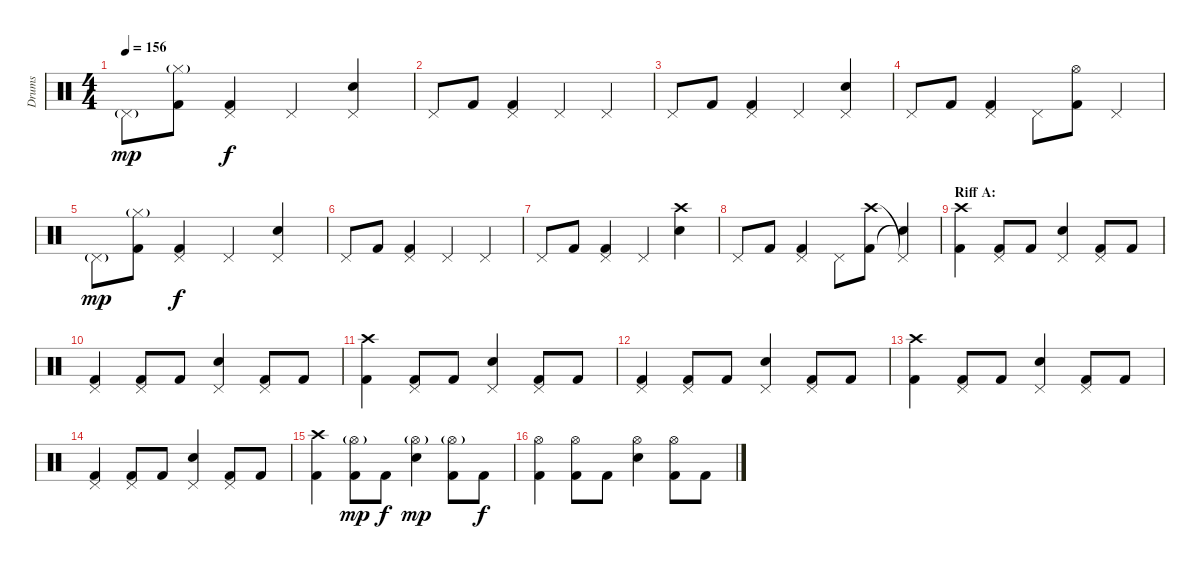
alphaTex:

\track ("Drums" "Drums") {instrument percussion}
\staff {score}
\articulation defaults
\ts (4 4)
\tempo 156
\clef neutral
\ks c "Pedal Hi-Hat (hit)"{g}.8{dy mp}
("Hi-Hat (closed)"{g} "Kick (hit) 2").8 ("Pedal Hi-Hat (hit)" "Kick (hit) 2").4{dy f} "Pedal Hi-Hat (hit)".4 ("Pedal Hi-Hat (hit)" "Electric Snare (hit)").4 |
"Pedal Hi-Hat (hit)".8 "Kick (hit) 2".8 ("Pedal Hi-Hat (hit)" "Kick (hit) 2").4 "Pedal Hi-Hat (hit)".4 "Pedal Hi-Hat (hit)".4 |
"Pedal Hi-Hat (hit)".8 "Kick (hit) 2".8 ("Pedal Hi-Hat (hit)" "Kick (hit) 2").4 "Pedal Hi-Hat (hit)".4 ("Pedal Hi-Hat (hit)" "Electric Snare (hit)").4 |
"Pedal Hi-Hat (hit)".8 "Kick (hit) 2".8 ("Pedal Hi-Hat (hit)" "Kick (hit) 2").4 "Pedal Hi-Hat (hit)".8 ("Hi-Hat (open)" "Kick (hit) 2").8 "Pedal Hi-Hat (hit)".4 |
"Pedal Hi-Hat (hit)"{g}.8{dy mp} ("Hi-Hat (closed)"{g} "Kick (hit) 2").8 ("Pedal Hi-Hat (hit)" "Kick (hit) 2").4{dy f} "Pedal Hi-Hat (hit)".4 ("Pedal Hi-Hat (hit)" "Electric Snare (hit)").4 |
"Pedal Hi-Hat (hit)".8 "Kick (hit) 2".8 ("Pedal Hi-Hat (hit)" "Kick (hit) 2").4 "Pedal Hi-Hat (hit)".4 "Pedal Hi-Hat (hit)".4 |
"Pedal Hi-Hat (hit)".8 "Kick (hit) 2".8 ("Pedal Hi-Hat (hit)" "Kick (hit) 2").4 "Pedal Hi-Hat (hit)".4 ("Crash high (hit)" "Electric Snare (hit)").4 |
"Pedal Hi-Hat (hit)".8 "Kick (hit) 2".8 ("Pedal Hi-Hat (hit)" "Kick (hit) 2").4 "Pedal Hi-Hat (hit)".8 ("Crash high (hit)" "Kick (hit) 2").8 ("Pedal Hi-Hat (hit)"{t} "Snare (hit)"{t}).4 |
\section ("" "Riff A:")
("Crash high (hit)" "Kick (hit) 2").4 ("Pedal Hi-Hat (hit)" "Kick (hit) 2").8 "Kick (hit) 2".8 ("Pedal Hi-Hat (hit)" "Electric Snare (hit)").4 ("Pedal Hi-Hat (hit)" "Kick (hit) 2").8 "Kick (hit) 2".8 |
("Pedal Hi-Hat (hit)" "Kick (hit) 2").4 ("Pedal Hi-Hat (hit)" "Kick (hit) 2").8 "Kick (hit) 2".8 ("Pedal Hi-Hat (hit)" "Electric Snare (hit)").4 ("Pedal Hi-Hat (hit)" "Kick (hit) 2").8 "Kick (hit) 2".8 |
("Crash high (hit)" "Kick (hit) 2").4 ("Pedal Hi-Hat (hit)" "Kick (hit) 2").8 "Kick (hit) 2".8 ("Pedal Hi-Hat (hit)" "Electric Snare (hit)").4 ("Pedal Hi-Hat (hit)" "Kick (hit) 2").8 "Kick (hit) 2".8 |
("Pedal Hi-Hat (hit)" "Kick (hit) 2").4 ("Pedal Hi-Hat (hit)" "Kick (hit) 2").8 "Kick (hit) 2".8 ("Pedal Hi-Hat (hit)" "Electric Snare (hit)").4 ("Pedal Hi-Hat (hit)" "Kick (hit) 2").8 "Kick (hit) 2".8 |
("Crash high (hit)" "Kick (hit) 2").4 ("Pedal Hi-Hat (hit)" "Kick (hit) 2").8 "Kick (hit) 2".8 ("Pedal Hi-Hat (hit)" "Electric Snare (hit)").4 ("Pedal Hi-Hat (hit)" "Kick (hit) 2").8 "Kick (hit) 2".8 |
("Pedal Hi-Hat (hit)" "Kick (hit) 2").4 ("Pedal Hi-Hat (hit)" "Kick (hit) 2").8 "Kick (hit) 2".8 ("Pedal Hi-Hat (hit)" "Electric Snare (hit)").4 ("Pedal Hi-Hat (hit)" "Kick (hit) 2").8 "Kick (hit) 2".8 |
("Crash high (hit)" "Kick (hit) 2").4 ("Hi-Hat (open)"{g} "Kick (hit) 2").8{dy mp} "Kick (hit) 2".8{dy f} ("Hi-Hat (open)"{g} "Electric Snare (hit)").4{dy mp} ("Hi-Hat (open)"{g} "Kick (hit) 2").8 "Kick (hit) 2".8{dy f} |
("Hi-Hat (open)" "Kick (hit) 2").4 ("Hi-Hat (open)" "Kick (hit) 2").8 "Kick (hit) 2".8 ("Hi-Hat (open)" "Electric Snare (hit)").4 ("Hi-Hat (open)" "Kick (hit) 2").8 "Kick (hit) 2".8
